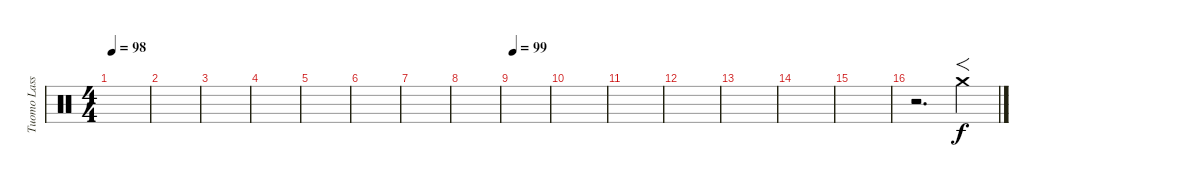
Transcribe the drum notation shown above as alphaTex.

\track ("Tuomo Lassila" "Tuomo Lass") {instrument percussion}
\staff {score}
\articulation defaults
\ts (4 4)
\tempo 98
\clef neutral
\ks c
|
|
|
|
|
|
|
|
\tempo 99
|
|
|
|
|
|
|
r.2{d} "Crash medium (hit)".4{f}
